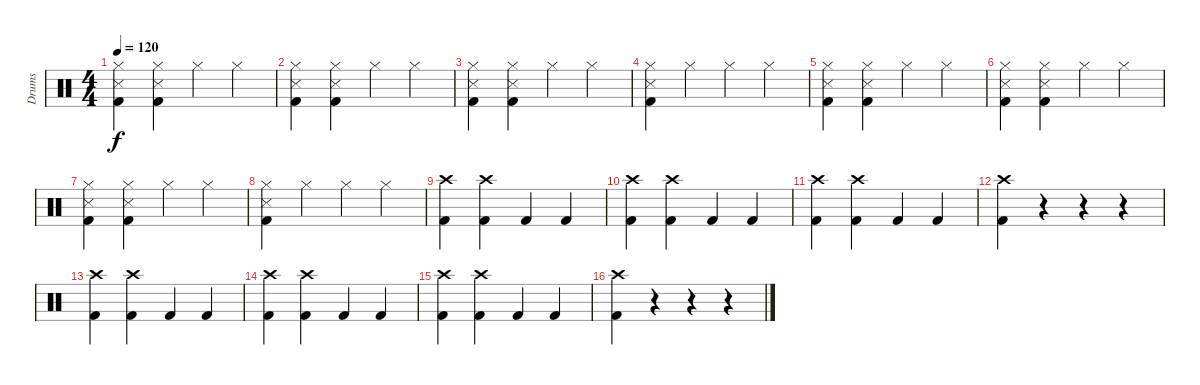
\track ("Drums" "Drums") {instrument percussion}
\staff {score}
\articulation defaults
\ts (4 4)
\tempo 120
\clef neutral
\ks c
("Hi-Hat (closed)" "Snare (side stick) 3" "Kick (hit) 2").4{dy f} ("Hi-Hat (closed)" "Snare (side stick) 3" "Kick (hit) 2").4 "Hi-Hat (closed)".4 "Hi-Hat (closed)".4 |
("Hi-Hat (closed)" "Snare (side stick) 3" "Kick (hit) 2").4 ("Hi-Hat (closed)" "Snare (side stick) 3" "Kick (hit) 2").4 "Hi-Hat (closed)".4 "Hi-Hat (closed)".4 |
("Hi-Hat (closed)" "Snare (side stick) 3" "Kick (hit) 2").4 ("Hi-Hat (closed)" "Snare (side stick) 3" "Kick (hit) 2").4 "Hi-Hat (closed)".4 "Hi-Hat (closed)".4 |
("Hi-Hat (closed)" "Snare (side stick) 3" "Kick (hit) 2").4 "Hi-Hat (closed)".4 "Hi-Hat (closed)".4 "Hi-Hat (closed)".4 |
("Hi-Hat (closed)" "Snare (side stick) 3" "Kick (hit) 2").4 ("Hi-Hat (closed)" "Snare (side stick) 3" "Kick (hit) 2").4 "Hi-Hat (closed)".4 "Hi-Hat (closed)".4 |
("Hi-Hat (closed)" "Snare (side stick) 3" "Kick (hit) 2").4 ("Hi-Hat (closed)" "Snare (side stick) 3" "Kick (hit) 2").4 "Hi-Hat (closed)".4 "Hi-Hat (closed)".4 |
("Hi-Hat (closed)" "Snare (side stick) 3" "Kick (hit) 2").4 ("Hi-Hat (closed)" "Snare (side stick) 3" "Kick (hit) 2").4 "Hi-Hat (closed)".4 "Hi-Hat (closed)".4 |
("Hi-Hat (closed)" "Snare (side stick) 3" "Kick (hit) 2").4 "Hi-Hat (closed)".4 "Hi-Hat (closed)".4 "Hi-Hat (closed)".4 |
("Crash high (hit)" "Kick (hit) 2").4 ("Crash high (hit)" "Kick (hit) 2").4 "Kick (hit) 2".4 "Kick (hit) 2".4 |
("Crash high (hit)" "Kick (hit) 2").4 ("Crash high (hit)" "Kick (hit) 2").4 "Kick (hit) 2".4 "Kick (hit) 2".4 |
("Crash high (hit)" "Kick (hit) 2").4 ("Crash high (hit)" "Kick (hit) 2").4 "Kick (hit) 2".4 "Kick (hit) 2".4 |
("Crash high (hit)" "Kick (hit) 2").4 r.4 r.4 r.4 |
("Crash high (hit)" "Kick (hit) 2").4 ("Crash high (hit)" "Kick (hit) 2").4 "Kick (hit) 2".4 "Kick (hit) 2".4 |
("Crash high (hit)" "Kick (hit) 2").4 ("Crash high (hit)" "Kick (hit) 2").4 "Kick (hit) 2".4 "Kick (hit) 2".4 |
("Crash high (hit)" "Kick (hit) 2").4 ("Crash high (hit)" "Kick (hit) 2").4 "Kick (hit) 2".4 "Kick (hit) 2".4 |
("Crash high (hit)" "Kick (hit) 2").4 r.4 r.4 r.4
